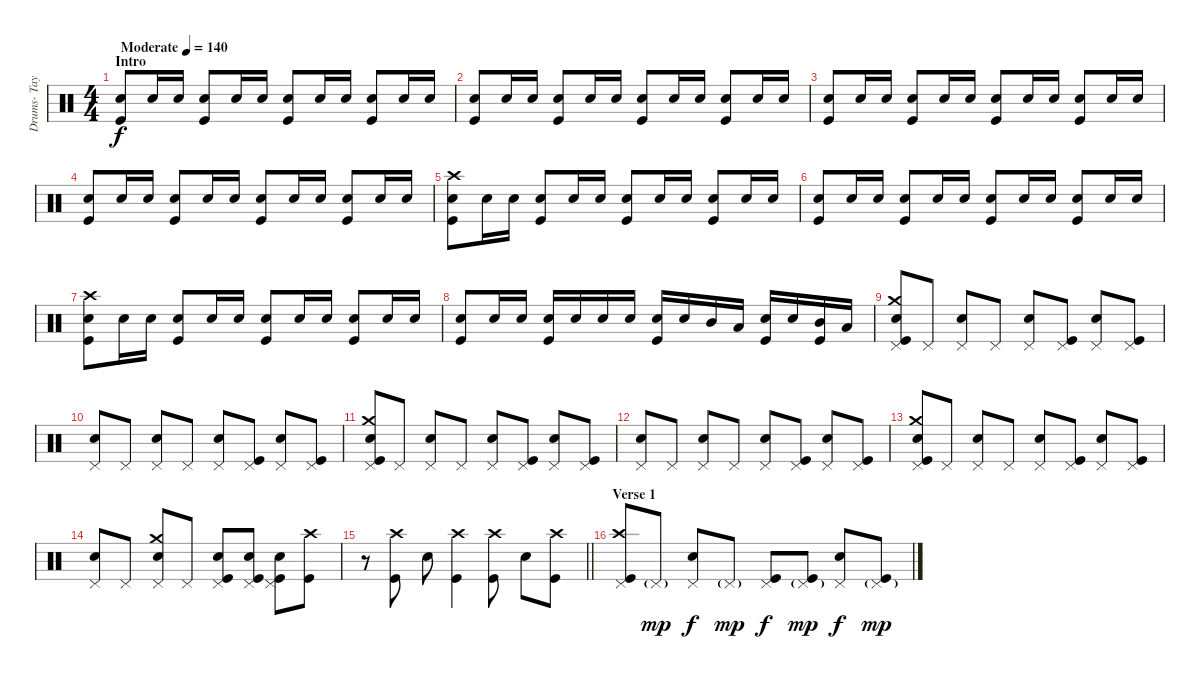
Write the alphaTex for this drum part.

\track ("Drums- Taylor Hawkins" "Drums- Tay") {instrument percussion}
\staff {score}
\articulation defaults
\ts (4 4)
\section ("" "Intro")
\tempo (140 "Moderate")
\clef neutral
\ks c
("Snare (hit) 2" "Kick (hit)").8{dy f} "Snare (hit) 2".16 "Snare (hit) 2".16 ("Snare (hit) 2" "Kick (hit)").8 "Snare (hit) 2".16 "Snare (hit) 2".16 ("Snare (hit) 2" "Kick (hit)").8 "Snare (hit) 2".16 "Snare (hit) 2".16 ("Snare (hit) 2" "Kick (hit)").8 "Snare (hit) 2".16 "Snare (hit) 2".16 |
("Snare (hit) 2" "Kick (hit)").8 "Snare (hit) 2".16 "Snare (hit) 2".16 ("Snare (hit) 2" "Kick (hit)").8 "Snare (hit) 2".16 "Snare (hit) 2".16 ("Snare (hit) 2" "Kick (hit)").8 "Snare (hit) 2".16 "Snare (hit) 2".16 ("Snare (hit) 2" "Kick (hit)").8 "Snare (hit) 2".16 "Snare (hit) 2".16 |
("Snare (hit) 2" "Kick (hit)").8 "Snare (hit) 2".16 "Snare (hit) 2".16 ("Snare (hit) 2" "Kick (hit)").8 "Snare (hit) 2".16 "Snare (hit) 2".16 ("Snare (hit) 2" "Kick (hit)").8 "Snare (hit) 2".16 "Snare (hit) 2".16 ("Snare (hit) 2" "Kick (hit)").8 "Snare (hit) 2".16 "Snare (hit) 2".16 |
("Snare (hit) 2" "Kick (hit)").8 "Snare (hit) 2".16 "Snare (hit) 2".16 ("Snare (hit) 2" "Kick (hit)").8 "Snare (hit) 2".16 "Snare (hit) 2".16 ("Snare (hit) 2" "Kick (hit)").8 "Snare (hit) 2".16 "Snare (hit) 2".16 ("Snare (hit) 2" "Kick (hit)").8 "Snare (hit) 2".16 "Snare (hit) 2".16 |
("Crash high (hit)" "Snare (hit) 2" "Kick (hit)").8 "Snare (hit) 2".16 "Snare (hit) 2".16 ("Snare (hit) 2" "Kick (hit)").8 "Snare (hit) 2".16 "Snare (hit) 2".16 ("Snare (hit) 2" "Kick (hit)").8 "Snare (hit) 2".16 "Snare (hit) 2".16 ("Snare (hit) 2" "Kick (hit)").8 "Snare (hit) 2".16 "Snare (hit) 2".16 |
("Snare (hit) 2" "Kick (hit)").8 "Snare (hit) 2".16 "Snare (hit) 2".16 ("Snare (hit) 2" "Kick (hit)").8 "Snare (hit) 2".16 "Snare (hit) 2".16 ("Snare (hit) 2" "Kick (hit)").8 "Snare (hit) 2".16 "Snare (hit) 2".16 ("Snare (hit) 2" "Kick (hit)").8 "Snare (hit) 2".16 "Snare (hit) 2".16 |
("Crash high (hit)" "Snare (hit) 2" "Kick (hit)").8 "Snare (hit) 2".16 "Snare (hit) 2".16 ("Snare (hit) 2" "Kick (hit)").8 "Snare (hit) 2".16 "Snare (hit) 2".16 ("Snare (hit) 2" "Kick (hit)").8 "Snare (hit) 2".16 "Snare (hit) 2".16 ("Snare (hit) 2" "Kick (hit)").8 "Snare (hit) 2".16 "Snare (hit) 2".16 |
("Snare (hit) 2" "Kick (hit)").8 "Snare (hit) 2".16 "Snare (hit) 2".16 ("Snare (hit) 2" "Kick (hit)").16 "Snare (hit) 2".16 "Snare (hit) 2".16 "Snare (hit) 2".16 ("Snare (hit) 2" "Kick (hit)").16 "Snare (hit) 2".16 "Mid Tom (hit)".16 "Low Tom (hit)".16 ("Snare (hit) 2" "Kick (hit)").16 "Snare (hit) 2".16 ("Mid Tom (hit)" "Kick (hit)").16 "Low Tom (hit)".16 |
("Kick (hit)" "Crash medium (hit)" "Snare (hit) 2" "Pedal Hi-Hat (hit)").8 "Pedal Hi-Hat (hit)".8 ("Snare (hit) 2" "Pedal Hi-Hat (hit)").8 "Pedal Hi-Hat (hit)".8 ("Snare (hit) 2" "Pedal Hi-Hat (hit)").8 ("Pedal Hi-Hat (hit)" "Kick (hit)").8 ("Snare (hit) 2" "Pedal Hi-Hat (hit)").8 ("Pedal Hi-Hat (hit)" "Kick (hit)").8 |
("Snare (hit) 2" "Pedal Hi-Hat (hit)").8 "Pedal Hi-Hat (hit)".8 ("Snare (hit) 2" "Pedal Hi-Hat (hit)").8 "Pedal Hi-Hat (hit)".8 ("Snare (hit) 2" "Pedal Hi-Hat (hit)").8 ("Pedal Hi-Hat (hit)" "Kick (hit)").8 ("Snare (hit) 2" "Pedal Hi-Hat (hit)").8 ("Pedal Hi-Hat (hit)" "Kick (hit)").8 |
("Kick (hit)" "Crash medium (hit)" "Snare (hit) 2" "Pedal Hi-Hat (hit)").8 "Pedal Hi-Hat (hit)".8 ("Snare (hit) 2" "Pedal Hi-Hat (hit)").8 "Pedal Hi-Hat (hit)".8 ("Snare (hit) 2" "Pedal Hi-Hat (hit)").8 ("Pedal Hi-Hat (hit)" "Kick (hit)").8 ("Snare (hit) 2" "Pedal Hi-Hat (hit)").8 ("Pedal Hi-Hat (hit)" "Kick (hit)").8 |
("Snare (hit) 2" "Pedal Hi-Hat (hit)").8 "Pedal Hi-Hat (hit)".8 ("Snare (hit) 2" "Pedal Hi-Hat (hit)").8 "Pedal Hi-Hat (hit)".8 ("Snare (hit) 2" "Pedal Hi-Hat (hit)").8 ("Pedal Hi-Hat (hit)" "Kick (hit)").8 ("Snare (hit) 2" "Pedal Hi-Hat (hit)").8 ("Pedal Hi-Hat (hit)" "Kick (hit)").8 |
("Kick (hit)" "Crash medium (hit)" "Snare (hit) 2" "Pedal Hi-Hat (hit)").8 "Pedal Hi-Hat (hit)".8 ("Snare (hit) 2" "Pedal Hi-Hat (hit)").8 "Pedal Hi-Hat (hit)".8 ("Snare (hit) 2" "Pedal Hi-Hat (hit)").8 ("Pedal Hi-Hat (hit)" "Kick (hit)").8 ("Snare (hit) 2" "Pedal Hi-Hat (hit)").8 ("Pedal Hi-Hat (hit)" "Kick (hit)").8 |
("Snare (hit) 2" "Pedal Hi-Hat (hit)").8 "Pedal Hi-Hat (hit)".8 ("Crash medium (hit)" "Snare (hit) 2" "Pedal Hi-Hat (hit)").8 "Pedal Hi-Hat (hit)".8 ("Pedal Hi-Hat (hit)" "Snare (hit) 2" "Kick (hit)").8 ("Pedal Hi-Hat (hit)" "Snare (hit) 2" "Kick (hit)").8 ("Pedal Hi-Hat (hit)" "Snare (hit) 2" "Kick (hit)").8 ("Crash high (hit)" "Kick (hit)").8 |
\barLineRight lightlight
r.8 ("Crash high (hit)" "Kick (hit)").8 "Snare (hit) 2".8 ("Crash high (hit)" "Kick (hit)").4 ("Crash high (hit)" "Kick (hit)").8 "Snare (hit) 2".8 ("Crash high (hit)" "Kick (hit)").8 |
\section ("" "Verse 1")
("Crash high (hit)" "Pedal Hi-Hat (hit)" "Kick (hit)").8 "Pedal Hi-Hat (hit)"{g}.8{dy mp} ("Pedal Hi-Hat (hit)" "Snare (hit) 2").8{dy f} "Pedal Hi-Hat (hit)"{g}.8{dy mp} ("Pedal Hi-Hat (hit)" "Kick (hit)").8{dy f} ("Pedal Hi-Hat (hit)"{g} "Kick (hit)").8{dy mp} ("Pedal Hi-Hat (hit)" "Snare (hit) 2").8{dy f} ("Pedal Hi-Hat (hit)"{g} "Kick (hit)").8{dy mp}
